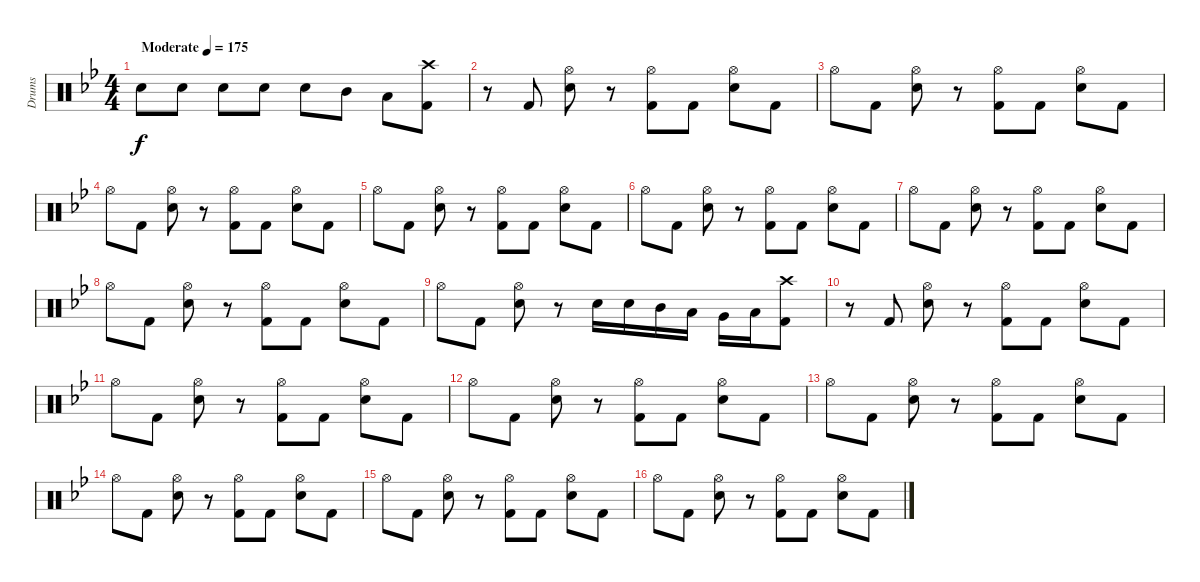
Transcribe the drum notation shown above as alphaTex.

\track ("Drums" "Drums") {instrument percussion}
\staff {score}
\articulation defaults
\ts (4 4)
\tempo (175 "Moderate")
\tempo 224
\tempo (175 "Moderate")
\clef neutral
\ks bb "Electric Snare (hit)".8{dy f} "Electric Snare (hit)".8 "Electric Snare (hit)".8 "Electric Snare (hit)".8 "Electric Snare (hit)".8 "Mid Tom (hit)".8 "Low Tom (hit)".8
("Crash high (hit)" "Kick (hit) 2").8 |
r.8 "Kick (hit) 2".8 ("Hi-Hat (open)" "Electric Snare (hit)").8 r.8 ("Hi-Hat (open)" "Kick (hit) 2").8 "Kick (hit) 2".8 ("Hi-Hat (open)" "Electric Snare (hit)").8 "Kick (hit) 2".8 |
"Hi-Hat (open)".8 "Kick (hit) 2".8 ("Hi-Hat (open)" "Electric Snare (hit)").8 r.8 ("Hi-Hat (open)" "Kick (hit) 2").8 "Kick (hit) 2".8 ("Hi-Hat (open)" "Electric Snare (hit)").8 "Kick (hit) 2".8 |
"Hi-Hat (open)".8 "Kick (hit) 2".8 ("Hi-Hat (open)" "Electric Snare (hit)").8 r.8 ("Hi-Hat (open)" "Kick (hit) 2").8 "Kick (hit) 2".8 ("Hi-Hat (open)" "Electric Snare (hit)").8 "Kick (hit) 2".8 |
"Hi-Hat (open)".8 "Kick (hit) 2".8 ("Hi-Hat (open)" "Electric Snare (hit)").8 r.8 ("Hi-Hat (open)" "Kick (hit) 2").8 "Kick (hit) 2".8 ("Hi-Hat (open)" "Electric Snare (hit)").8 "Kick (hit) 2".8 |
"Hi-Hat (open)".8 "Kick (hit) 2".8 ("Hi-Hat (open)" "Electric Snare (hit)").8 r.8 ("Hi-Hat (open)" "Kick (hit) 2").8 "Kick (hit) 2".8 ("Hi-Hat (open)" "Electric Snare (hit)").8 "Kick (hit) 2".8 |
"Hi-Hat (open)".8 "Kick (hit) 2".8 ("Hi-Hat (open)" "Electric Snare (hit)").8 r.8 ("Hi-Hat (open)" "Kick (hit) 2").8 "Kick (hit) 2".8 ("Hi-Hat (open)" "Electric Snare (hit)").8 "Kick (hit) 2".8 |
"Hi-Hat (open)".8 "Kick (hit) 2".8 ("Hi-Hat (open)" "Electric Snare (hit)").8 r.8 ("Hi-Hat (open)" "Kick (hit) 2").8 "Kick (hit) 2".8 ("Hi-Hat (open)" "Electric Snare (hit)").8 "Kick (hit) 2".8 |
"Hi-Hat (open)".8 "Kick (hit) 2".8 ("Hi-Hat (open)" "Electric Snare (hit)").8 r.8 "Electric Snare (hit)".16 "Electric Snare (hit)".16 "Mid Tom (hit)".16 "Low Tom (hit)".16 "Very Low Tom (hit)".16 "Low Floor Tom (hit)".16 ("Crash high (hit)" "Kick (hit) 2").8 |
r.8 "Kick (hit) 2".8 ("Hi-Hat (open)" "Electric Snare (hit)").8 r.8 ("Hi-Hat (open)" "Kick (hit) 2").8 "Kick (hit) 2".8 ("Hi-Hat (open)" "Electric Snare (hit)").8 "Kick (hit) 2".8 |
"Hi-Hat (open)".8 "Kick (hit) 2".8 ("Hi-Hat (open)" "Electric Snare (hit)").8 r.8 ("Hi-Hat (open)" "Kick (hit) 2").8 "Kick (hit) 2".8 ("Hi-Hat (open)" "Electric Snare (hit)").8 "Kick (hit) 2".8 |
"Hi-Hat (open)".8 "Kick (hit) 2".8 ("Hi-Hat (open)" "Electric Snare (hit)").8 r.8 ("Hi-Hat (open)" "Kick (hit) 2").8 "Kick (hit) 2".8 ("Hi-Hat (open)" "Electric Snare (hit)").8 "Kick (hit) 2".8 |
"Hi-Hat (open)".8 "Kick (hit) 2".8 ("Hi-Hat (open)" "Electric Snare (hit)").8 r.8 ("Hi-Hat (open)" "Kick (hit) 2").8 "Kick (hit) 2".8 ("Hi-Hat (open)" "Electric Snare (hit)").8 "Kick (hit) 2".8 |
"Hi-Hat (open)".8 "Kick (hit) 2".8 ("Hi-Hat (open)" "Electric Snare (hit)").8 r.8 ("Hi-Hat (open)" "Kick (hit) 2").8 "Kick (hit) 2".8 ("Hi-Hat (open)" "Electric Snare (hit)").8 "Kick (hit) 2".8 |
"Hi-Hat (open)".8 "Kick (hit) 2".8 ("Hi-Hat (open)" "Electric Snare (hit)").8 r.8 ("Hi-Hat (open)" "Kick (hit) 2").8 "Kick (hit) 2".8 ("Hi-Hat (open)" "Electric Snare (hit)").8 "Kick (hit) 2".8 |
"Hi-Hat (open)".8 "Kick (hit) 2".8 ("Hi-Hat (open)" "Electric Snare (hit)").8 r.8 ("Hi-Hat (open)" "Kick (hit) 2").8 "Kick (hit) 2".8 ("Hi-Hat (open)" "Electric Snare (hit)").8 "Kick (hit) 2".8
